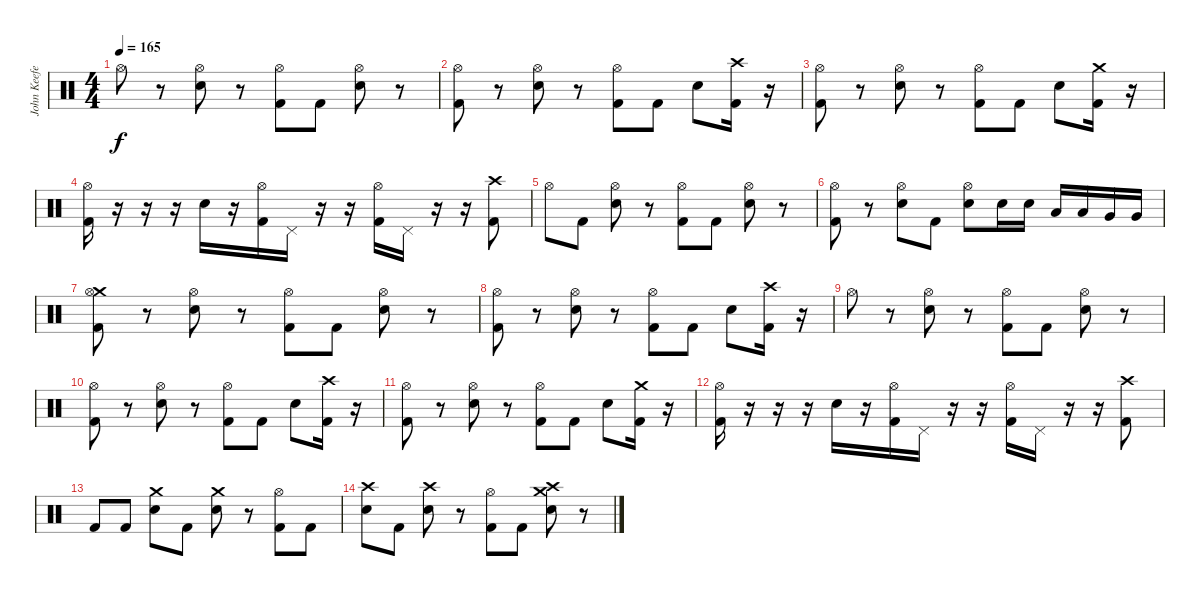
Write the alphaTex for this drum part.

\track ("John Keefe (Drums)" "John Keefe") {instrument percussion}
\staff {score}
\articulation defaults
\ts (4 4)
\tempo 165
\clef neutral
\ks c "Hi-Hat (open)".8{dy f}
r.8 ("Hi-Hat (open)" "Electric Snare (hit)").8 r.8 ("Hi-Hat (open)" "Kick (hit) 2").8 "Kick (hit) 2".8 ("Hi-Hat (open)" "Electric Snare (hit)").8 r.8 |
("Hi-Hat (open)" "Kick (hit) 2").8 r.8 ("Hi-Hat (open)" "Electric Snare (hit)").8 r.8 ("Hi-Hat (open)" "Kick (hit) 2").8 "Kick (hit) 2".8 "Electric Snare (hit)".8 ("Crash high (hit)" "Kick (hit) 2").16 r.16 |
("Hi-Hat (open)" "Kick (hit) 2").8 r.8 ("Hi-Hat (open)" "Electric Snare (hit)").8 r.8 ("Hi-Hat (open)" "Kick (hit) 2").8 "Kick (hit) 2".8 "Electric Snare (hit)".8 ("Crash medium (hit)" "Kick (hit) 2").16 r.16 |
("Hi-Hat (open)" "Kick (hit) 2").16 r.16 r.16 r.16 "Electric Snare (hit)".16 r.16 ("Hi-Hat (open)" "Kick (hit) 2").16 "Pedal Hi-Hat (hit)".16 r.16 r.16 ("Hi-Hat (open)" "Kick (hit) 2").16 "Pedal Hi-Hat (hit)".16 r.16 r.16 ("Crash high (hit)" "Kick (hit) 2").8 |
"Hi-Hat (open)".8 "Kick (hit) 2".8 ("Hi-Hat (open)" "Electric Snare (hit)").8 r.8 ("Hi-Hat (open)" "Kick (hit) 2").8 "Kick (hit) 2".8 ("Hi-Hat (open)" "Electric Snare (hit)").8 r.8 |
("Hi-Hat (open)" "Kick (hit) 2").8 r.8 ("Hi-Hat (open)" "Electric Snare (hit)").8 "Kick (hit) 2".8 ("Hi-Hat (open)" "Electric Snare (hit)").8 "Electric Snare (hit)".16 "Electric Snare (hit)".16 "Low Tom (hit)".16 "Low Tom (hit)".16 "Very Low Tom (hit)".16 "Very Low Tom (hit)".16 |
("Crash medium (hit)" "Hi-Hat (open)" "Kick (hit) 2").8 r.8 ("Hi-Hat (open)" "Electric Snare (hit)").8 r.8 ("Hi-Hat (open)" "Kick (hit) 2").8 "Kick (hit) 2".8 ("Hi-Hat (open)" "Electric Snare (hit)").8 r.8 |
("Hi-Hat (open)" "Kick (hit) 2").8 r.8 ("Hi-Hat (open)" "Electric Snare (hit)").8 r.8 ("Hi-Hat (open)" "Kick (hit) 2").8 "Kick (hit) 2".8 "Electric Snare (hit)".8 ("Crash high (hit)" "Kick (hit) 2").16 r.16 |
"Hi-Hat (open)".8 r.8 ("Hi-Hat (open)" "Electric Snare (hit)").8 r.8 ("Hi-Hat (open)" "Kick (hit) 2").8 "Kick (hit) 2".8 ("Hi-Hat (open)" "Electric Snare (hit)").8 r.8 |
("Hi-Hat (open)" "Kick (hit) 2").8 r.8 ("Hi-Hat (open)" "Electric Snare (hit)").8 r.8 ("Hi-Hat (open)" "Kick (hit) 2").8 "Kick (hit) 2".8 "Electric Snare (hit)".8 ("Crash high (hit)" "Kick (hit) 2").16 r.16 |
("Hi-Hat (open)" "Kick (hit) 2").8 r.8 ("Hi-Hat (open)" "Electric Snare (hit)").8 r.8 ("Hi-Hat (open)" "Kick (hit) 2").8 "Kick (hit) 2".8 "Electric Snare (hit)".8 ("Crash medium (hit)" "Kick (hit) 2").16 r.16 |
("Hi-Hat (open)" "Kick (hit) 2").16 r.16 r.16 r.16 "Electric Snare (hit)".16 r.16 ("Hi-Hat (open)" "Kick (hit) 2").16 "Pedal Hi-Hat (hit)".16 r.16 r.16 ("Hi-Hat (open)" "Kick (hit) 2").16 "Pedal Hi-Hat (hit)".16 r.16 r.16 ("Crash high (hit)" "Kick (hit) 2").8 |
"Kick (hit) 2".8 "Kick (hit) 2".8 ("Crash medium (hit)" "Electric Snare (hit)").8 "Kick (hit) 2".8 ("Crash medium (hit)" "Electric Snare (hit)").8 r.8 ("Hi-Hat (open)" "Kick (hit) 2").8 "Kick (hit) 2".8 |
("Crash high (hit)" "Electric Snare (hit)").8 "Kick (hit) 2".8 ("Crash high (hit)" "Electric Snare (hit)").8 r.8 ("Hi-Hat (open)" "Kick (hit) 2").8 "Kick (hit) 2".8 ("Crash high (hit)" "Crash medium (hit)" "Electric Snare (hit)").8 r.8
